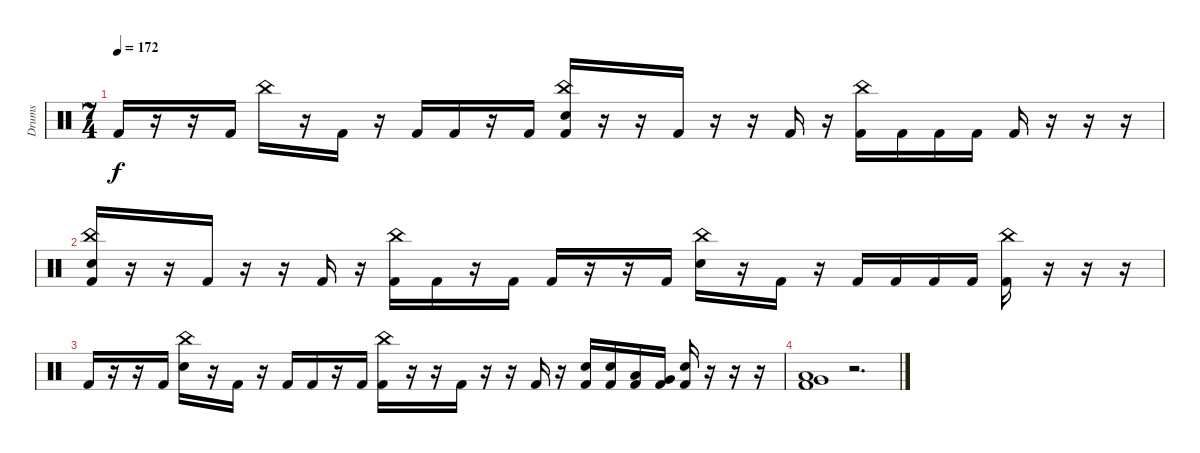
\track ("Drums" "Drums") {instrument percussion}
\staff {score}
\articulation defaults
\ts (7 4)
\tempo 172
\clef neutral
\ks c "Kick (hit) 2".16{dy f}
r.16 r.16 "Kick (hit) 2".16 "China (hit)".16 r.16 "Kick (hit) 2".16 r.16 "Kick (hit) 2".16 "Kick (hit) 2".16 r.16 "Kick (hit) 2".16 ("China (hit)" "Electric Snare (hit)" "Kick (hit) 2").16 r.16 r.16 "Kick (hit) 2".16 r.16 r.16 "Kick (hit) 2".16 r.16 ("China (hit)" "Kick (hit) 2").16 "Kick (hit) 2".16 "Kick (hit) 2".16 "Kick (hit) 2".16 "Kick (hit) 2".16 r.16 r.16 r.16 |
("China (hit)" "Electric Snare (hit)" "Kick (hit) 2").16 r.16 r.16 "Kick (hit) 2".16 r.16 r.16 "Kick (hit) 2".16 r.16 ("China (hit)" "Kick (hit) 2").16 "Kick (hit) 2".16 r.16 "Kick (hit) 2".16 "Kick (hit) 2".16 r.16 r.16 "Kick (hit) 2".16 ("China (hit)" "Electric Snare (hit)").16 r.16 "Kick (hit) 2".16 r.16 "Kick (hit) 2".16 "Kick (hit) 2".16 "Kick (hit) 2".16 "Kick (hit) 2".16 ("China (hit)" "Kick (hit) 2").16 r.16 r.16 r.16 |
"Kick (hit) 2".16 r.16 r.16 "Kick (hit) 2".16 ("China (hit)" "Electric Snare (hit)").16 r.16 "Kick (hit) 2".16 r.16 "Kick (hit) 2".16 "Kick (hit) 2".16 r.16 "Kick (hit) 2".16 ("China (hit)" "Kick (hit) 2").16 r.16 r.16 "Kick (hit) 2".16 r.16 r.16 "Kick (hit) 2".16 r.16 ("Electric Snare (hit)" "Kick (hit) 2").16 ("Electric Snare (hit)" "Kick (hit) 2").16 ("Low Tom (hit)" "Kick (hit) 2").16 ("Very Low Tom (hit)" "Kick (hit) 2").16 ("Electric Snare (hit)" "Kick (hit) 2").16 r.16 r.16 r.16 |
("Very Low Tom (hit)" "Low Floor Tom (hit)" "Kick (hit) 2").1 r.2{d}
